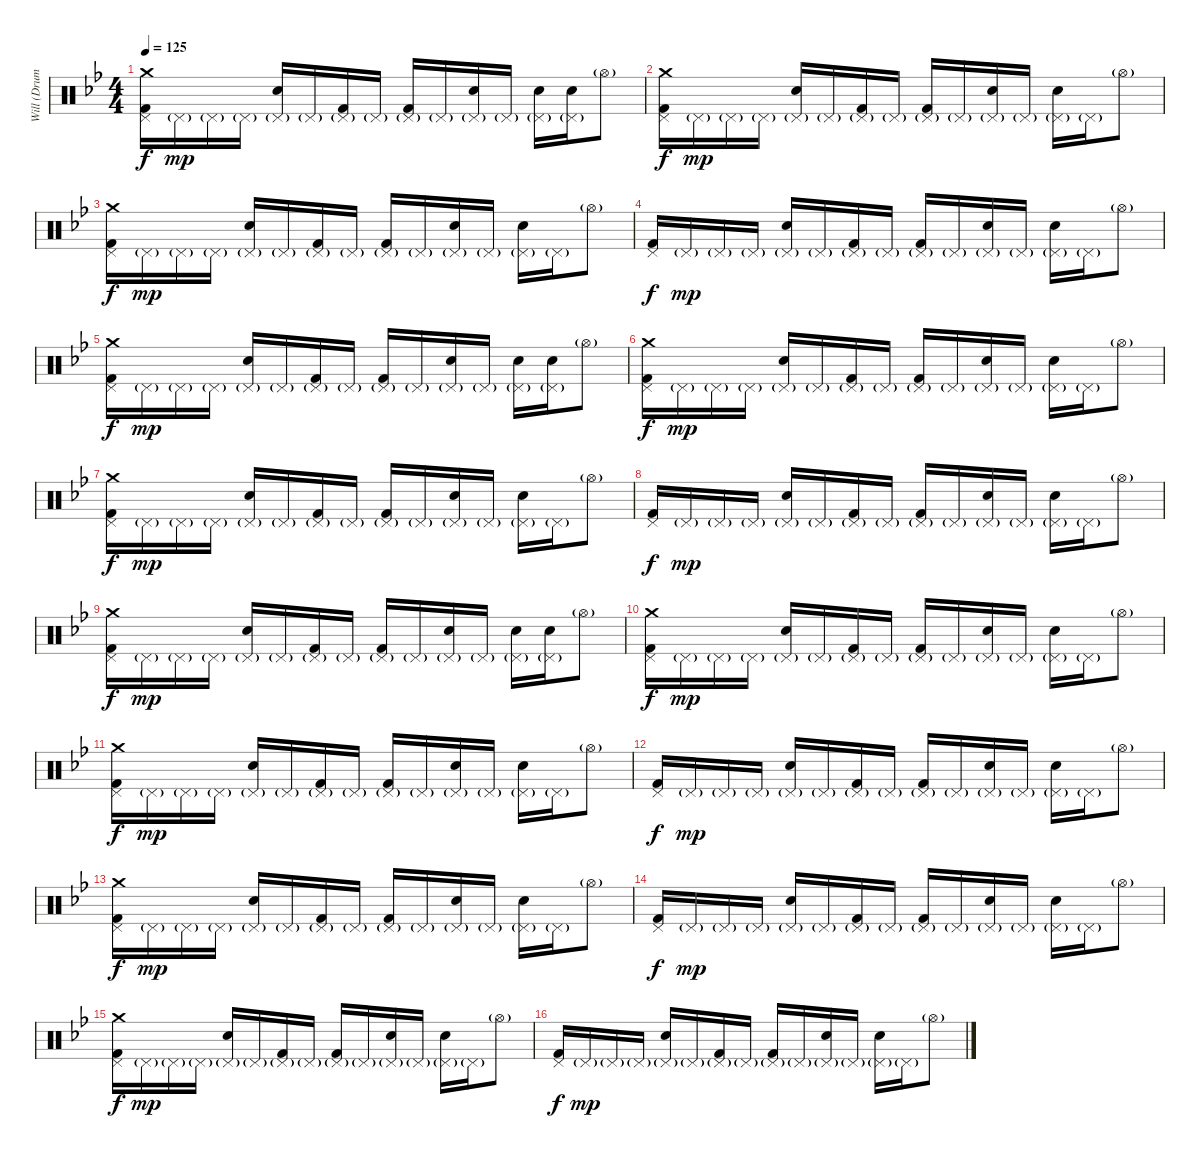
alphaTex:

\track ("Will (Drums)" "Will (Drum") {instrument percussion}
\staff {score}
\articulation defaults
\ts (4 4)
\tempo 125
\clef neutral
\ks bb
("Kick (hit) 2" "Pedal Hi-Hat (hit)" "Crash medium (hit)").16{dy f} "Pedal Hi-Hat (hit)"{g}.16{dy mp} "Pedal Hi-Hat (hit)"{g}.16 "Pedal Hi-Hat (hit)"{g}.16 ("Snare (hit) 2" "Pedal Hi-Hat (hit)"{g}).16 "Pedal Hi-Hat (hit)"{g}.16 ("Kick (hit) 2" "Pedal Hi-Hat (hit)"{g}).16 "Pedal Hi-Hat (hit)"{g}.16 ("Kick (hit) 2" "Pedal Hi-Hat (hit)"{g}).16 "Pedal Hi-Hat (hit)"{g}.16 ("Snare (hit) 2" "Pedal Hi-Hat (hit)"{g}).16 "Pedal Hi-Hat (hit)"{g}.16 ("Snare (hit) 2" "Pedal Hi-Hat (hit)"{g}).16 ("Snare (hit) 2" "Pedal Hi-Hat (hit)"{g}).16 "Hi-Hat (open)"{g}.8 |
("Kick (hit) 2" "Pedal Hi-Hat (hit)" "Crash medium (hit)").16{dy f} "Pedal Hi-Hat (hit)"{g}.16{dy mp} "Pedal Hi-Hat (hit)"{g}.16 "Pedal Hi-Hat (hit)"{g}.16 ("Snare (hit) 2" "Pedal Hi-Hat (hit)"{g}).16 "Pedal Hi-Hat (hit)"{g}.16 ("Kick (hit) 2" "Pedal Hi-Hat (hit)"{g}).16 "Pedal Hi-Hat (hit)"{g}.16 ("Kick (hit) 2" "Pedal Hi-Hat (hit)"{g}).16 "Pedal Hi-Hat (hit)"{g}.16 ("Snare (hit) 2" "Pedal Hi-Hat (hit)"{g}).16 "Pedal Hi-Hat (hit)"{g}.16 ("Snare (hit) 2" "Pedal Hi-Hat (hit)"{g}).16 "Pedal Hi-Hat (hit)"{g}.16 "Hi-Hat (open)"{g}.8 |
("Kick (hit) 2" "Pedal Hi-Hat (hit)" "Crash medium (hit)").16{dy f} "Pedal Hi-Hat (hit)"{g}.16{dy mp} "Pedal Hi-Hat (hit)"{g}.16 "Pedal Hi-Hat (hit)"{g}.16 ("Snare (hit) 2" "Pedal Hi-Hat (hit)"{g}).16 "Pedal Hi-Hat (hit)"{g}.16 ("Kick (hit) 2" "Pedal Hi-Hat (hit)"{g}).16 "Pedal Hi-Hat (hit)"{g}.16 ("Kick (hit) 2" "Pedal Hi-Hat (hit)"{g}).16 "Pedal Hi-Hat (hit)"{g}.16 ("Snare (hit) 2" "Pedal Hi-Hat (hit)"{g}).16 "Pedal Hi-Hat (hit)"{g}.16 ("Snare (hit) 2" "Pedal Hi-Hat (hit)"{g}).16 "Pedal Hi-Hat (hit)"{g}.16 "Hi-Hat (open)"{g}.8 |
("Kick (hit) 2" "Pedal Hi-Hat (hit)").16{dy f} "Pedal Hi-Hat (hit)"{g}.16{dy mp} "Pedal Hi-Hat (hit)"{g}.16 "Pedal Hi-Hat (hit)"{g}.16 ("Snare (hit) 2" "Pedal Hi-Hat (hit)"{g}).16 "Pedal Hi-Hat (hit)"{g}.16 ("Kick (hit) 2" "Pedal Hi-Hat (hit)"{g}).16 "Pedal Hi-Hat (hit)"{g}.16 ("Kick (hit) 2" "Pedal Hi-Hat (hit)"{g}).16 "Pedal Hi-Hat (hit)"{g}.16 ("Snare (hit) 2" "Pedal Hi-Hat (hit)"{g}).16 "Pedal Hi-Hat (hit)"{g}.16 ("Snare (hit) 2" "Pedal Hi-Hat (hit)"{g}).16 "Pedal Hi-Hat (hit)"{g}.16 "Hi-Hat (open)"{g}.8 |
("Kick (hit) 2" "Pedal Hi-Hat (hit)" "Crash medium (hit)").16{dy f} "Pedal Hi-Hat (hit)"{g}.16{dy mp} "Pedal Hi-Hat (hit)"{g}.16 "Pedal Hi-Hat (hit)"{g}.16 ("Snare (hit) 2" "Pedal Hi-Hat (hit)"{g}).16 "Pedal Hi-Hat (hit)"{g}.16 ("Kick (hit) 2" "Pedal Hi-Hat (hit)"{g}).16 "Pedal Hi-Hat (hit)"{g}.16 ("Kick (hit) 2" "Pedal Hi-Hat (hit)"{g}).16 "Pedal Hi-Hat (hit)"{g}.16 ("Snare (hit) 2" "Pedal Hi-Hat (hit)"{g}).16 "Pedal Hi-Hat (hit)"{g}.16 ("Snare (hit) 2" "Pedal Hi-Hat (hit)"{g}).16 ("Snare (hit) 2" "Pedal Hi-Hat (hit)"{g}).16 "Hi-Hat (open)"{g}.8 |
("Kick (hit) 2" "Pedal Hi-Hat (hit)" "Crash medium (hit)").16{dy f} "Pedal Hi-Hat (hit)"{g}.16{dy mp} "Pedal Hi-Hat (hit)"{g}.16 "Pedal Hi-Hat (hit)"{g}.16 ("Snare (hit) 2" "Pedal Hi-Hat (hit)"{g}).16 "Pedal Hi-Hat (hit)"{g}.16 ("Kick (hit) 2" "Pedal Hi-Hat (hit)"{g}).16 "Pedal Hi-Hat (hit)"{g}.16 ("Kick (hit) 2" "Pedal Hi-Hat (hit)"{g}).16 "Pedal Hi-Hat (hit)"{g}.16 ("Snare (hit) 2" "Pedal Hi-Hat (hit)"{g}).16 "Pedal Hi-Hat (hit)"{g}.16 ("Snare (hit) 2" "Pedal Hi-Hat (hit)"{g}).16 "Pedal Hi-Hat (hit)"{g}.16 "Hi-Hat (open)"{g}.8 |
("Kick (hit) 2" "Pedal Hi-Hat (hit)" "Crash medium (hit)").16{dy f} "Pedal Hi-Hat (hit)"{g}.16{dy mp} "Pedal Hi-Hat (hit)"{g}.16 "Pedal Hi-Hat (hit)"{g}.16 ("Snare (hit) 2" "Pedal Hi-Hat (hit)"{g}).16 "Pedal Hi-Hat (hit)"{g}.16 ("Kick (hit) 2" "Pedal Hi-Hat (hit)"{g}).16 "Pedal Hi-Hat (hit)"{g}.16 ("Kick (hit) 2" "Pedal Hi-Hat (hit)"{g}).16 "Pedal Hi-Hat (hit)"{g}.16 ("Snare (hit) 2" "Pedal Hi-Hat (hit)"{g}).16 "Pedal Hi-Hat (hit)"{g}.16 ("Snare (hit) 2" "Pedal Hi-Hat (hit)"{g}).16 "Pedal Hi-Hat (hit)"{g}.16 "Hi-Hat (open)"{g}.8 |
("Kick (hit) 2" "Pedal Hi-Hat (hit)").16{dy f} "Pedal Hi-Hat (hit)"{g}.16{dy mp} "Pedal Hi-Hat (hit)"{g}.16 "Pedal Hi-Hat (hit)"{g}.16 ("Snare (hit) 2" "Pedal Hi-Hat (hit)"{g}).16 "Pedal Hi-Hat (hit)"{g}.16 ("Kick (hit) 2" "Pedal Hi-Hat (hit)"{g}).16 "Pedal Hi-Hat (hit)"{g}.16 ("Kick (hit) 2" "Pedal Hi-Hat (hit)"{g}).16 "Pedal Hi-Hat (hit)"{g}.16 ("Snare (hit) 2" "Pedal Hi-Hat (hit)"{g}).16 "Pedal Hi-Hat (hit)"{g}.16 ("Snare (hit) 2" "Pedal Hi-Hat (hit)"{g}).16 "Pedal Hi-Hat (hit)"{g}.16 "Hi-Hat (open)"{g}.8 |
("Kick (hit) 2" "Pedal Hi-Hat (hit)" "Crash medium (hit)").16{dy f} "Pedal Hi-Hat (hit)"{g}.16{dy mp} "Pedal Hi-Hat (hit)"{g}.16 "Pedal Hi-Hat (hit)"{g}.16 ("Snare (hit) 2" "Pedal Hi-Hat (hit)"{g}).16 "Pedal Hi-Hat (hit)"{g}.16 ("Kick (hit) 2" "Pedal Hi-Hat (hit)"{g}).16 "Pedal Hi-Hat (hit)"{g}.16 ("Kick (hit) 2" "Pedal Hi-Hat (hit)"{g}).16 "Pedal Hi-Hat (hit)"{g}.16 ("Snare (hit) 2" "Pedal Hi-Hat (hit)"{g}).16 "Pedal Hi-Hat (hit)"{g}.16 ("Snare (hit) 2" "Pedal Hi-Hat (hit)"{g}).16 ("Snare (hit) 2" "Pedal Hi-Hat (hit)"{g}).16 "Hi-Hat (open)"{g}.8 |
("Kick (hit) 2" "Pedal Hi-Hat (hit)" "Crash medium (hit)").16{dy f} "Pedal Hi-Hat (hit)"{g}.16{dy mp} "Pedal Hi-Hat (hit)"{g}.16 "Pedal Hi-Hat (hit)"{g}.16 ("Snare (hit) 2" "Pedal Hi-Hat (hit)"{g}).16 "Pedal Hi-Hat (hit)"{g}.16 ("Kick (hit) 2" "Pedal Hi-Hat (hit)"{g}).16 "Pedal Hi-Hat (hit)"{g}.16 ("Kick (hit) 2" "Pedal Hi-Hat (hit)"{g}).16 "Pedal Hi-Hat (hit)"{g}.16 ("Snare (hit) 2" "Pedal Hi-Hat (hit)"{g}).16 "Pedal Hi-Hat (hit)"{g}.16 ("Snare (hit) 2" "Pedal Hi-Hat (hit)"{g}).16 "Pedal Hi-Hat (hit)"{g}.16 "Hi-Hat (open)"{g}.8 |
("Kick (hit) 2" "Pedal Hi-Hat (hit)" "Crash medium (hit)").16{dy f} "Pedal Hi-Hat (hit)"{g}.16{dy mp} "Pedal Hi-Hat (hit)"{g}.16 "Pedal Hi-Hat (hit)"{g}.16 ("Snare (hit) 2" "Pedal Hi-Hat (hit)"{g}).16 "Pedal Hi-Hat (hit)"{g}.16 ("Kick (hit) 2" "Pedal Hi-Hat (hit)"{g}).16 "Pedal Hi-Hat (hit)"{g}.16 ("Kick (hit) 2" "Pedal Hi-Hat (hit)"{g}).16 "Pedal Hi-Hat (hit)"{g}.16 ("Snare (hit) 2" "Pedal Hi-Hat (hit)"{g}).16 "Pedal Hi-Hat (hit)"{g}.16 ("Snare (hit) 2" "Pedal Hi-Hat (hit)"{g}).16 "Pedal Hi-Hat (hit)"{g}.16 "Hi-Hat (open)"{g}.8 |
("Kick (hit) 2" "Pedal Hi-Hat (hit)").16{dy f} "Pedal Hi-Hat (hit)"{g}.16{dy mp} "Pedal Hi-Hat (hit)"{g}.16 "Pedal Hi-Hat (hit)"{g}.16 ("Snare (hit) 2" "Pedal Hi-Hat (hit)"{g}).16 "Pedal Hi-Hat (hit)"{g}.16 ("Kick (hit) 2" "Pedal Hi-Hat (hit)"{g}).16 "Pedal Hi-Hat (hit)"{g}.16 ("Kick (hit) 2" "Pedal Hi-Hat (hit)"{g}).16 "Pedal Hi-Hat (hit)"{g}.16 ("Snare (hit) 2" "Pedal Hi-Hat (hit)"{g}).16 "Pedal Hi-Hat (hit)"{g}.16 ("Snare (hit) 2" "Pedal Hi-Hat (hit)"{g}).16 "Pedal Hi-Hat (hit)"{g}.16 "Hi-Hat (open)"{g}.8 |
("Kick (hit) 2" "Pedal Hi-Hat (hit)" "Crash medium (hit)").16{dy f} "Pedal Hi-Hat (hit)"{g}.16{dy mp} "Pedal Hi-Hat (hit)"{g}.16 "Pedal Hi-Hat (hit)"{g}.16 ("Snare (hit) 2" "Pedal Hi-Hat (hit)"{g}).16 "Pedal Hi-Hat (hit)"{g}.16 ("Kick (hit) 2" "Pedal Hi-Hat (hit)"{g}).16 "Pedal Hi-Hat (hit)"{g}.16 ("Kick (hit) 2" "Pedal Hi-Hat (hit)"{g}).16 "Pedal Hi-Hat (hit)"{g}.16 ("Snare (hit) 2" "Pedal Hi-Hat (hit)"{g}).16 "Pedal Hi-Hat (hit)"{g}.16 ("Snare (hit) 2" "Pedal Hi-Hat (hit)"{g}).16 "Pedal Hi-Hat (hit)"{g}.16 "Hi-Hat (open)"{g}.8 |
("Kick (hit) 2" "Pedal Hi-Hat (hit)").16{dy f} "Pedal Hi-Hat (hit)"{g}.16{dy mp} "Pedal Hi-Hat (hit)"{g}.16 "Pedal Hi-Hat (hit)"{g}.16 ("Snare (hit) 2" "Pedal Hi-Hat (hit)"{g}).16 "Pedal Hi-Hat (hit)"{g}.16 ("Kick (hit) 2" "Pedal Hi-Hat (hit)"{g}).16 "Pedal Hi-Hat (hit)"{g}.16 ("Kick (hit) 2" "Pedal Hi-Hat (hit)"{g}).16 "Pedal Hi-Hat (hit)"{g}.16 ("Snare (hit) 2" "Pedal Hi-Hat (hit)"{g}).16 "Pedal Hi-Hat (hit)"{g}.16 ("Snare (hit) 2" "Pedal Hi-Hat (hit)"{g}).16 "Pedal Hi-Hat (hit)"{g}.16 "Hi-Hat (open)"{g}.8 |
("Kick (hit) 2" "Pedal Hi-Hat (hit)" "Crash medium (hit)").16{dy f} "Pedal Hi-Hat (hit)"{g}.16{dy mp} "Pedal Hi-Hat (hit)"{g}.16 "Pedal Hi-Hat (hit)"{g}.16 ("Snare (hit) 2" "Pedal Hi-Hat (hit)"{g}).16 "Pedal Hi-Hat (hit)"{g}.16 ("Kick (hit) 2" "Pedal Hi-Hat (hit)"{g}).16 "Pedal Hi-Hat (hit)"{g}.16 ("Kick (hit) 2" "Pedal Hi-Hat (hit)"{g}).16 "Pedal Hi-Hat (hit)"{g}.16 ("Snare (hit) 2" "Pedal Hi-Hat (hit)"{g}).16 "Pedal Hi-Hat (hit)"{g}.16 ("Snare (hit) 2" "Pedal Hi-Hat (hit)"{g}).16 "Pedal Hi-Hat (hit)"{g}.16 "Hi-Hat (open)"{g}.8 |
("Kick (hit) 2" "Pedal Hi-Hat (hit)").16{dy f} "Pedal Hi-Hat (hit)"{g}.16{dy mp} "Pedal Hi-Hat (hit)"{g}.16 "Pedal Hi-Hat (hit)"{g}.16 ("Snare (hit) 2" "Pedal Hi-Hat (hit)"{g}).16 "Pedal Hi-Hat (hit)"{g}.16 ("Kick (hit) 2" "Pedal Hi-Hat (hit)"{g}).16 "Pedal Hi-Hat (hit)"{g}.16 ("Kick (hit) 2" "Pedal Hi-Hat (hit)"{g}).16 "Pedal Hi-Hat (hit)"{g}.16 ("Snare (hit) 2" "Pedal Hi-Hat (hit)"{g}).16 "Pedal Hi-Hat (hit)"{g}.16 ("Snare (hit) 2" "Pedal Hi-Hat (hit)"{g}).16 "Pedal Hi-Hat (hit)"{g}.16 "Hi-Hat (open)"{g}.8
